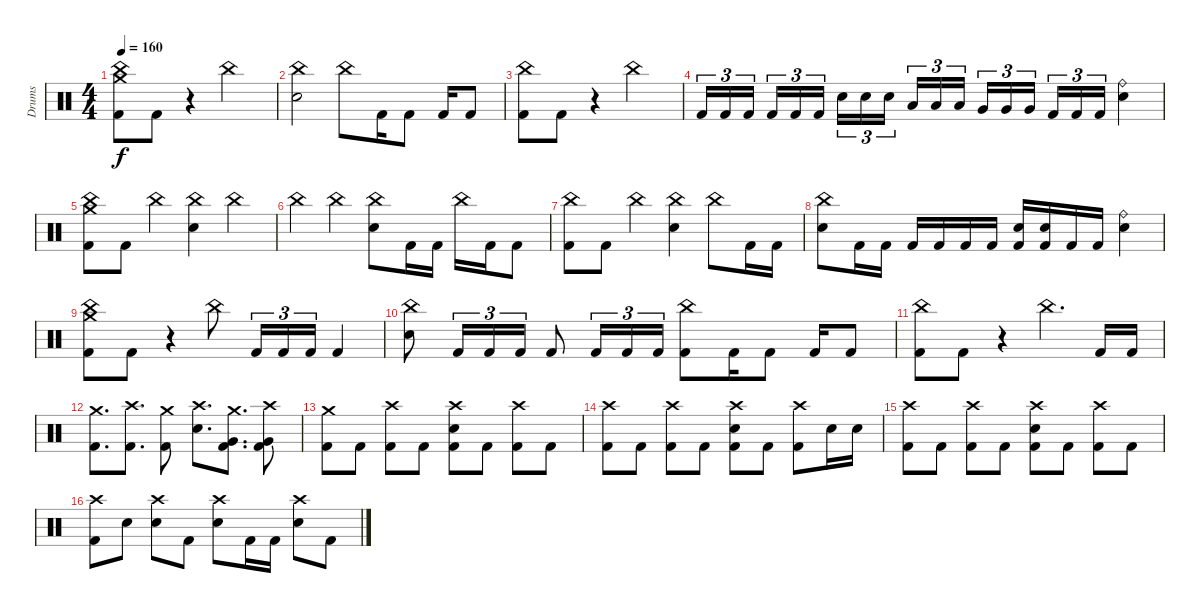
\track ("Drums" "Drums") {instrument percussion}
\staff {score}
\articulation defaults
\ts (4 4)
\tempo 160
\clef neutral
\ks c
("Crash medium (hit)" "China (hit)" "Kick (hit) 2").8{dy f} "Kick (hit) 2".8 r.4 "China (hit)".2 |
("China (hit)" "Electric Snare (hit)").2 "China (hit)".8 "Kick (hit) 2".16 "Kick (hit) 2".8 "Kick (hit) 2".16 "Kick (hit) 2".8 |
("China (hit)" "Kick (hit) 2").8 "Kick (hit) 2".8 r.4 "China (hit)".2 |
"Kick (hit) 2".16{tu (3 2)} "Kick (hit) 2".16{tu (3 2)} "Kick (hit) 2".16{tu (3 2) beam splitsecondary} "Kick (hit) 2".16{tu (3 2)} "Kick (hit) 2".16{tu (3 2)} "Kick (hit) 2".16{tu (3 2)} "Electric Snare (hit)".16{tu (3 2)} "Electric Snare (hit)".16{tu (3 2)} "Electric Snare (hit)".16{tu (3 2) beam splitsecondary} "Low Tom (hit)".16{tu (3 2)} "Low Tom (hit)".16{tu (3 2)} "Low Tom (hit)".16{tu (3 2)} "Very Low Tom (hit)".16{tu (3 2)} "Very Low Tom (hit)".16{tu (3 2)} "Very Low Tom (hit)".16{tu (3 2) beam splitsecondary} "Kick (hit) 2".16{tu (3 2)} "Kick (hit) 2".16{tu (3 2)} "Kick (hit) 2".16{tu (3 2)} ("Ride (bell)" "Electric Snare (hit)").4 |
("Crash medium (hit)" "China (hit)" "Kick (hit) 2").8 "Kick (hit) 2".8 "China (hit)".4 ("China (hit)" "Electric Snare (hit)").4 "China (hit)".4 |
"China (hit)".4 "China (hit)".4 ("China (hit)" "Electric Snare (hit)").8 "Kick (hit) 2".16 "Kick (hit) 2".16 "China (hit)".16 "Kick (hit) 2".16 "Kick (hit) 2".8 |
("China (hit)" "Kick (hit) 2").8 "Kick (hit) 2".8 "China (hit)".4 ("China (hit)" "Electric Snare (hit)").4 "China (hit)".8 "Kick (hit) 2".16 "Kick (hit) 2".16 |
("China (hit)" "Electric Snare (hit)").8 "Kick (hit) 2".16 "Kick (hit) 2".16 "Kick (hit) 2".16 "Kick (hit) 2".16 "Kick (hit) 2".16 "Kick (hit) 2".16 ("Electric Snare (hit)" "Kick (hit) 2").16 ("Electric Snare (hit)" "Kick (hit) 2").16 "Kick (hit) 2".16 "Kick (hit) 2".16 ("Ride (bell)" "Electric Snare (hit)").4 |
("Crash medium (hit)" "China (hit)" "Kick (hit) 2").8 "Kick (hit) 2".8 r.4 "China (hit)".8 "Kick (hit) 2".16{tu (3 2)} "Kick (hit) 2".16{tu (3 2)} "Kick (hit) 2".16{tu (3 2)} "Kick (hit) 2".4 |
("China (hit)" "Electric Snare (hit)").8 "Kick (hit) 2".16{tu (3 2)} "Kick (hit) 2".16{tu (3 2)} "Kick (hit) 2".16{tu (3 2)} "Kick (hit) 2".8 "Kick (hit) 2".16{tu (3 2)} "Kick (hit) 2".16{tu (3 2)} "Kick (hit) 2".16{tu (3 2)} ("China (hit)" "Kick (hit) 2").8 "Kick (hit) 2".16 "Kick (hit) 2".8 "Kick (hit) 2".16 "Kick (hit) 2".8 |
("China (hit)" "Kick (hit) 2").8 "Kick (hit) 2".8 r.4 "China (hit)".4{d} "Kick (hit) 2".16 "Kick (hit) 2".16 |
("Crash medium (hit)" "Kick (hit) 2").8{d} ("Crash high (hit)" "Kick (hit) 2").8{d} ("Crash medium (hit)" "Kick (hit) 2").8 ("Crash high (hit)" "Electric Snare (hit)").8{d} ("Crash medium (hit)" "Very Low Tom (hit)" "Kick (hit) 2").8{d} ("Crash high (hit)" "Very Low Tom (hit)" "Kick (hit) 2").8 |
("Crash medium (hit)" "Kick (hit) 2").8 "Kick (hit) 2".8 ("Crash high (hit)" "Kick (hit) 2").8 "Kick (hit) 2".8 ("Crash high (hit)" "Electric Snare (hit)" "Kick (hit) 2").8 "Kick (hit) 2".8 ("Crash high (hit)" "Kick (hit) 2").8 "Kick (hit) 2".8 |
("Crash high (hit)" "Kick (hit) 2").8 "Kick (hit) 2".8 ("Crash high (hit)" "Kick (hit) 2").8 "Kick (hit) 2".8 ("Crash high (hit)" "Electric Snare (hit)" "Kick (hit) 2").8 "Kick (hit) 2".8 ("Crash high (hit)" "Kick (hit) 2").8 "Electric Snare (hit)".16 "Electric Snare (hit)".16 |
("Crash high (hit)" "Kick (hit) 2").8 "Kick (hit) 2".8 ("Crash high (hit)" "Kick (hit) 2").8 "Kick (hit) 2".8 ("Crash high (hit)" "Electric Snare (hit)" "Kick (hit) 2").8 "Kick (hit) 2".8 ("Crash high (hit)" "Kick (hit) 2").8 "Kick (hit) 2".8 |
("Crash high (hit)" "Kick (hit) 2").8 "Electric Snare (hit)".8 ("Crash high (hit)" "Electric Snare (hit)").8 "Kick (hit) 2".8 ("Crash high (hit)" "Electric Snare (hit)").8 "Kick (hit) 2".16 "Kick (hit) 2".16 ("Crash high (hit)" "Electric Snare (hit)").8 "Kick (hit) 2".8
